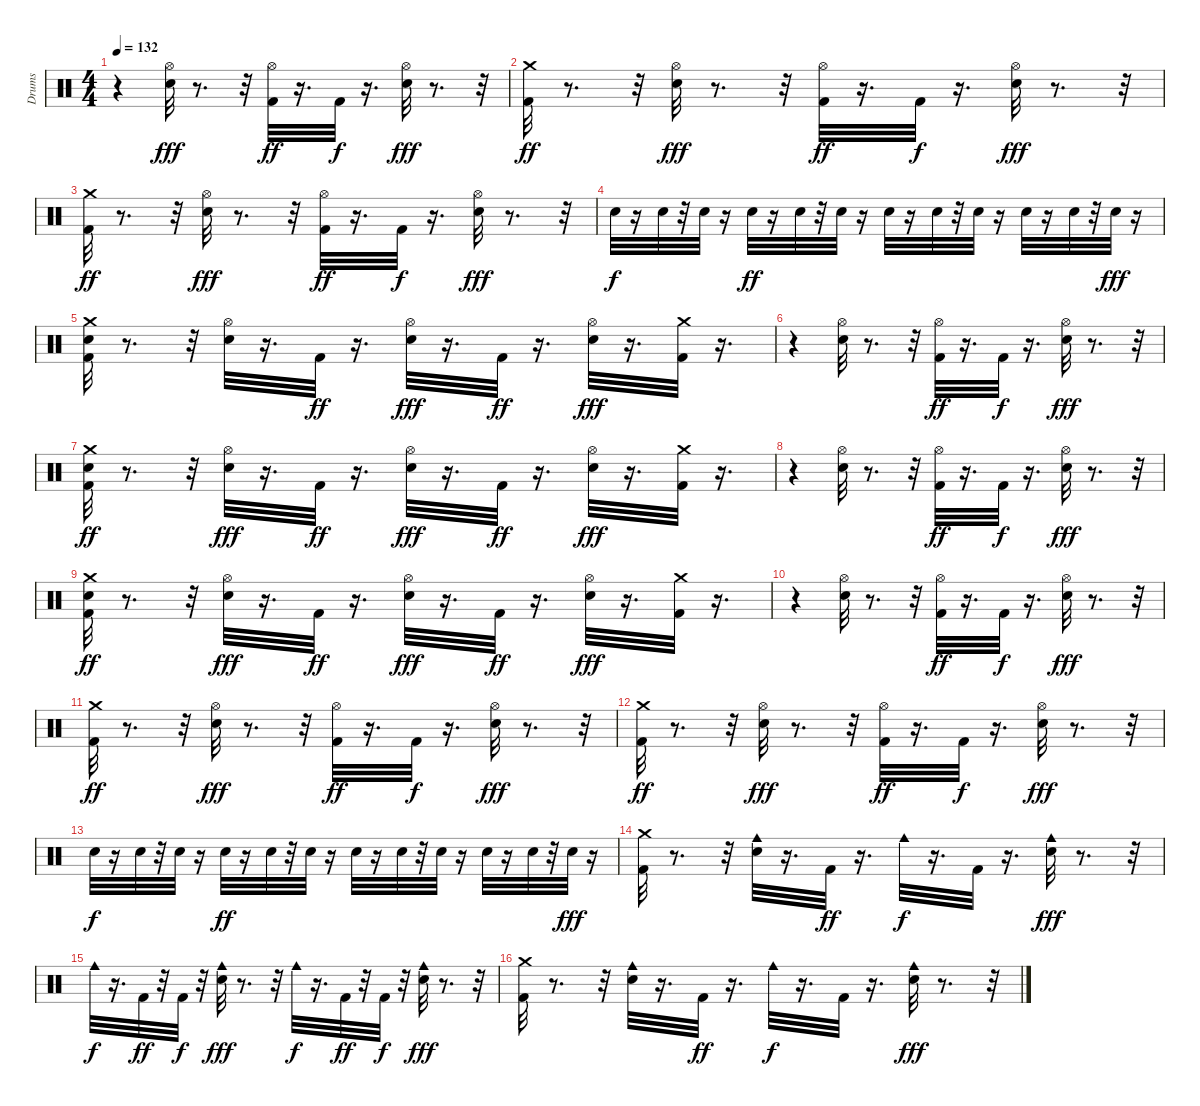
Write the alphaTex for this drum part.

\track ("Drums" "Drums") {instrument percussion}
\staff {score}
\articulation defaults
\ts (4 4)
\tempo 132
\clef neutral
\ks c
r.4{dy fff} ("Hi-Hat (open)" "Snare (hit) 2").32 r.8{d} r.32 ("Hi-Hat (open)" "Kick (hit) 2").32{dy ff} r.16{d} "Kick (hit) 2".32{dy f} r.16{d} ("Hi-Hat (open)" "Snare (hit) 2").32{dy fff} r.8{d} r.32 |
("Crash medium (hit)" "Kick (hit) 2").32{dy ff} r.8{d} r.32 ("Hi-Hat (open)" "Snare (hit) 2").32{dy fff} r.8{d} r.32 ("Hi-Hat (open)" "Kick (hit) 2").32{dy ff} r.16{d} "Kick (hit) 2".32{dy f} r.16{d} ("Hi-Hat (open)" "Snare (hit) 2").32{dy fff} r.8{d} r.32 |
("Crash medium (hit)" "Kick (hit) 2").32{dy ff} r.8{d} r.32 ("Hi-Hat (open)" "Snare (hit) 2").32{dy fff} r.8{d} r.32 ("Hi-Hat (open)" "Kick (hit) 2").32{dy ff} r.16{d} "Kick (hit) 2".32{dy f} r.16{d} ("Hi-Hat (open)" "Snare (hit) 2").32{dy fff} r.8{d} r.32 |
"Snare (hit) 2".32{dy f} r.16 "Snare (hit) 2".32 r.32 "Snare (hit) 2".32 r.16 "Snare (hit) 2".32{dy ff} r.16 "Snare (hit) 2".32 r.32 "Snare (hit) 2".32 r.16 "Snare (hit) 2".32 r.16 "Snare (hit) 2".32 r.32 "Snare (hit) 2".32 r.16 "Snare (hit) 2".32 r.16 "Snare (hit) 2".32 r.32 "Snare (hit) 2".32{dy fff} r.16 |
("Snare (hit) 2" "Crash medium (hit)" "Kick (hit) 2").32 r.8{d} r.32 ("Hi-Hat (open)" "Snare (hit) 2").32 r.16{d} "Kick (hit) 2".32{dy ff} r.16{d} ("Hi-Hat (open)" "Snare (hit) 2").32{dy fff} r.16{d} "Kick (hit) 2".32{dy ff} r.16{d} ("Hi-Hat (open)" "Snare (hit) 2").32{dy fff} r.16{d} ("Kick (hit) 2" "Crash medium (hit)").32 r.16{d} |
r.4 ("Hi-Hat (open)" "Snare (hit) 2").32 r.8{d} r.32 ("Hi-Hat (open)" "Kick (hit) 2").32{dy ff} r.16{d} "Kick (hit) 2".32{dy f} r.16{d} ("Hi-Hat (open)" "Snare (hit) 2").32{dy fff} r.8{d} r.32 |
("Snare (hit) 2" "Crash medium (hit)" "Kick (hit) 2").32{dy ff} r.8{d} r.32 ("Hi-Hat (open)" "Snare (hit) 2").32{dy fff} r.16{d} "Kick (hit) 2".32{dy ff} r.16{d} ("Hi-Hat (open)" "Snare (hit) 2").32{dy fff} r.16{d} "Kick (hit) 2".32{dy ff} r.16{d} ("Hi-Hat (open)" "Snare (hit) 2").32{dy fff} r.16{d} ("Kick (hit) 2" "Crash medium (hit)").32 r.16{d} |
r.4 ("Hi-Hat (open)" "Snare (hit) 2").32 r.8{d} r.32 ("Hi-Hat (open)" "Kick (hit) 2").32{dy ff} r.16{d} "Kick (hit) 2".32{dy f} r.16{d} ("Hi-Hat (open)" "Snare (hit) 2").32{dy fff} r.8{d} r.32 |
("Snare (hit) 2" "Crash medium (hit)" "Kick (hit) 2").32{dy ff} r.8{d} r.32 ("Hi-Hat (open)" "Snare (hit) 2").32{dy fff} r.16{d} "Kick (hit) 2".32{dy ff} r.16{d} ("Hi-Hat (open)" "Snare (hit) 2").32{dy fff} r.16{d} "Kick (hit) 2".32{dy ff} r.16{d} ("Hi-Hat (open)" "Snare (hit) 2").32{dy fff} r.16{d} ("Kick (hit) 2" "Crash medium (hit)").32 r.16{d} |
r.4 ("Hi-Hat (open)" "Snare (hit) 2").32 r.8{d} r.32 ("Hi-Hat (open)" "Kick (hit) 2").32{dy ff} r.16{d} "Kick (hit) 2".32{dy f} r.16{d} ("Hi-Hat (open)" "Snare (hit) 2").32{dy fff} r.8{d} r.32 |
("Crash medium (hit)" "Kick (hit) 2").32{dy ff} r.8{d} r.32 ("Hi-Hat (open)" "Snare (hit) 2").32{dy fff} r.8{d} r.32 ("Hi-Hat (open)" "Kick (hit) 2").32{dy ff} r.16{d} "Kick (hit) 2".32{dy f} r.16{d} ("Hi-Hat (open)" "Snare (hit) 2").32{dy fff} r.8{d} r.32 |
("Crash medium (hit)" "Kick (hit) 2").32{dy ff} r.8{d} r.32 ("Hi-Hat (open)" "Snare (hit) 2").32{dy fff} r.8{d} r.32 ("Hi-Hat (open)" "Kick (hit) 2").32{dy ff} r.16{d} "Kick (hit) 2".32{dy f} r.16{d} ("Hi-Hat (open)" "Snare (hit) 2").32{dy fff} r.8{d} r.32 |
"Snare (hit) 2".32{dy f} r.16 "Snare (hit) 2".32 r.32 "Snare (hit) 2".32 r.16 "Snare (hit) 2".32{dy ff} r.16 "Snare (hit) 2".32 r.32 "Snare (hit) 2".32 r.16 "Snare (hit) 2".32 r.16 "Snare (hit) 2".32 r.32 "Snare (hit) 2".32 r.16 "Snare (hit) 2".32 r.16 "Snare (hit) 2".32 r.32 "Snare (hit) 2".32{dy fff} r.16 |
("Kick (hit) 2" "Crash medium (hit)").32 r.8{d} r.32 ("Cowbell medium (hit)" "Snare (hit) 2").32 r.16{d} "Kick (hit) 2".32{dy ff} r.16{d} "Cowbell medium (hit)".32{dy f} r.16{d} "Kick (hit) 2".32 r.16{d} ("Cowbell medium (hit)" "Snare (hit) 2").32{dy fff} r.8{d} r.32 |
"Cowbell medium (hit)".32{dy f} r.16{d} "Kick (hit) 2".32{dy ff} r.32 "Kick (hit) 2".32{dy f} r.32 ("Cowbell medium (hit)" "Snare (hit) 2").32{dy fff} r.8{d} r.32 "Cowbell medium (hit)".32{dy f} r.16{d} "Kick (hit) 2".32{dy ff} r.32 "Kick (hit) 2".32{dy f} r.32 ("Cowbell medium (hit)" "Snare (hit) 2").32{dy fff} r.8{d} r.32 |
("Kick (hit) 2" "Crash medium (hit)").32 r.8{d} r.32 ("Cowbell medium (hit)" "Snare (hit) 2").32 r.16{d} "Kick (hit) 2".32{dy ff} r.16{d} "Cowbell medium (hit)".32{dy f} r.16{d} "Kick (hit) 2".32 r.16{d} ("Cowbell medium (hit)" "Snare (hit) 2").32{dy fff} r.8{d} r.32
